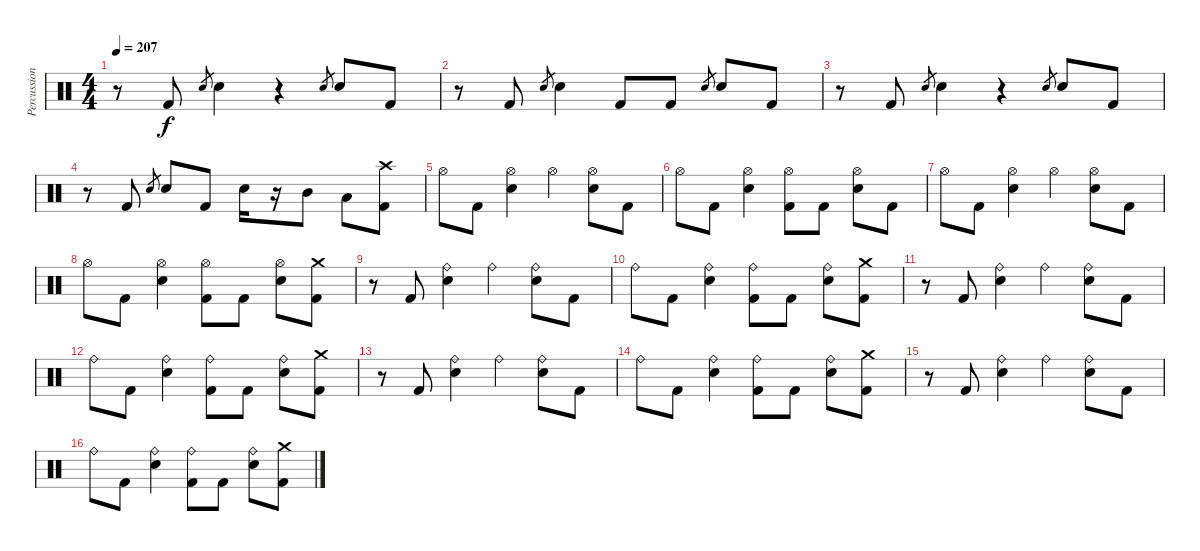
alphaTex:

\track ("Percussion" "Percussion") {instrument percussion}
\staff {score}
\articulation defaults
\ts (4 4)
\tempo 207
\clef neutral
\ks c
r.8{dy f} "Kick (hit) 2".8 "Snare (hit) 2".8{gr} "Snare (hit) 2".4 r.4 "Snare (hit) 2".8{gr} "Snare (hit) 2".8 "Kick (hit) 2".8 |
r.8 "Kick (hit) 2".8 "Snare (hit) 2".8{gr} "Snare (hit) 2".4 "Kick (hit) 2".8 "Kick (hit) 2".8 "Snare (hit) 2".8{gr} "Snare (hit) 2".8 "Kick (hit) 2".8 |
r.8 "Kick (hit) 2".8 "Snare (hit) 2".8{gr} "Snare (hit) 2".4 r.4 "Snare (hit) 2".8{gr} "Snare (hit) 2".8 "Kick (hit) 2".8 |
r.8 "Kick (hit) 2".8 "Snare (hit) 2".8{gr} "Snare (hit) 2".8 "Kick (hit) 2".8 "Snare (hit) 2".16 r.16 "Mid Tom (hit)".8 "Low Tom (hit)".8 ("Crash high (hit)" "Kick (hit) 2").8 |
"Hi-Hat (open)".8 "Kick (hit) 2".8 ("Hi-Hat (open)" "Snare (hit) 2").4 "Hi-Hat (open)".4 ("Hi-Hat (open)" "Snare (hit) 2").8 "Kick (hit) 2".8 |
"Hi-Hat (open)".8 "Kick (hit) 2".8 ("Hi-Hat (open)" "Snare (hit) 2").4 ("Hi-Hat (open)" "Kick (hit) 2").8 "Kick (hit) 2".8 ("Hi-Hat (open)" "Snare (hit) 2").8 "Kick (hit) 2".8 |
"Hi-Hat (open)".8 "Kick (hit) 2".8 ("Hi-Hat (open)" "Snare (hit) 2").4 "Hi-Hat (open)".4 ("Hi-Hat (open)" "Snare (hit) 2").8 "Kick (hit) 2".8 |
"Hi-Hat (open)".8 "Kick (hit) 2".8 ("Hi-Hat (open)" "Snare (hit) 2").4 ("Hi-Hat (open)" "Kick (hit) 2").8 "Kick (hit) 2".8 ("Hi-Hat (open)" "Snare (hit) 2").8 ("Crash medium (hit)" "Kick (hit) 2").8 |
r.8 "Kick (hit) 2".8 ("Ride (bell)" "Snare (hit) 2").4 "Ride (bell)".4 ("Ride (bell)" "Snare (hit) 2").8 "Kick (hit) 2".8 |
"Ride (bell)".8 "Kick (hit) 2".8 ("Ride (bell)" "Snare (hit) 2").4 ("Ride (bell)" "Kick (hit) 2").8 "Kick (hit) 2".8 ("Ride (bell)" "Snare (hit) 2").8 ("Crash medium (hit)" "Kick (hit) 2").8 |
r.8 "Kick (hit) 2".8 ("Ride (bell)" "Snare (hit) 2").4 "Ride (bell)".4 ("Ride (bell)" "Snare (hit) 2").8 "Kick (hit) 2".8 |
"Ride (bell)".8 "Kick (hit) 2".8 ("Ride (bell)" "Snare (hit) 2").4 ("Ride (bell)" "Kick (hit) 2").8 "Kick (hit) 2".8 ("Ride (bell)" "Snare (hit) 2").8 ("Crash medium (hit)" "Kick (hit) 2").8 |
r.8 "Kick (hit) 2".8 ("Ride (bell)" "Snare (hit) 2").4 "Ride (bell)".4 ("Ride (bell)" "Snare (hit) 2").8 "Kick (hit) 2".8 |
"Ride (bell)".8 "Kick (hit) 2".8 ("Ride (bell)" "Snare (hit) 2").4 ("Ride (bell)" "Kick (hit) 2").8 "Kick (hit) 2".8 ("Ride (bell)" "Snare (hit) 2").8 ("Crash medium (hit)" "Kick (hit) 2").8 |
r.8 "Kick (hit) 2".8 ("Ride (bell)" "Snare (hit) 2").4 "Ride (bell)".4 ("Ride (bell)" "Snare (hit) 2").8 "Kick (hit) 2".8 |
"Ride (bell)".8 "Kick (hit) 2".8 ("Ride (bell)" "Snare (hit) 2").4 ("Ride (bell)" "Kick (hit) 2").8 "Kick (hit) 2".8 ("Ride (bell)" "Snare (hit) 2").8 ("Crash medium (hit)" "Kick (hit) 2").8
